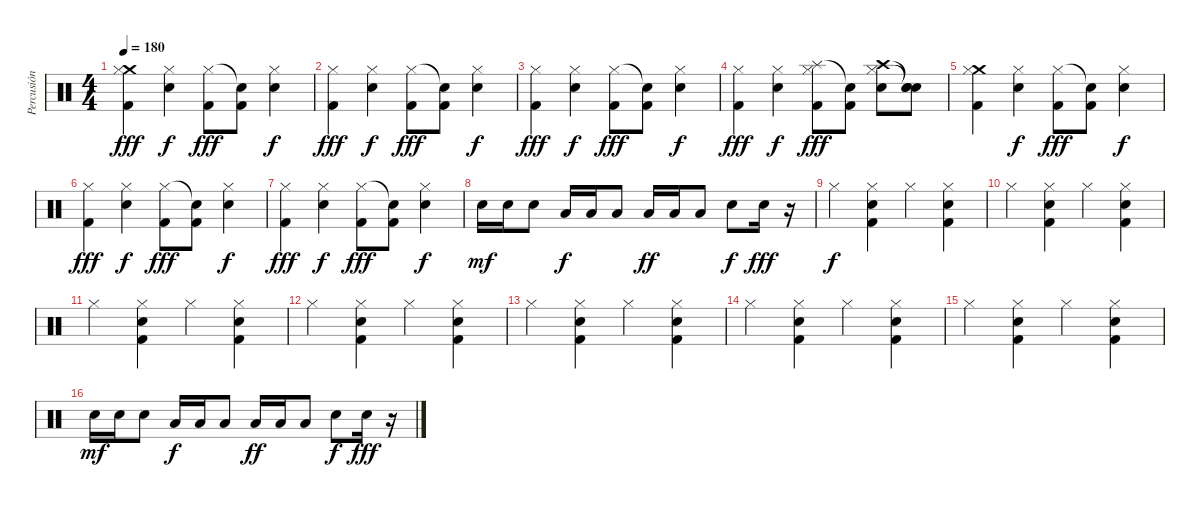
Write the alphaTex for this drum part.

\track ("Percusión" "Percusión") {instrument percussion}
\staff {score}
\articulation defaults
\ts (4 4)
\tempo 180
\clef neutral
\ks c
("Crash medium (hit)" "Hi-Hat (closed)" "Kick (hit) 2").4{dy fff} ("Snare (hit) 2" "Hi-Hat (closed)").4{dy f} ("Hi-Hat (closed)" "Kick (hit) 2").8{dy fff} ("Snare (hit)"{t} "Kick (hit) 2").8 ("Snare (hit) 2" "Hi-Hat (closed)").4{dy f} |
("Hi-Hat (closed)" "Kick (hit) 2").4{dy fff} ("Snare (hit) 2" "Hi-Hat (closed)").4{dy f} ("Hi-Hat (closed)" "Kick (hit) 2").8{dy fff} ("Snare (hit)"{t} "Kick (hit) 2").8 ("Snare (hit) 2" "Hi-Hat (closed)").4{dy f} |
("Hi-Hat (closed)" "Kick (hit) 2").4{dy fff} ("Snare (hit) 2" "Hi-Hat (closed)").4{dy f} ("Hi-Hat (closed)" "Kick (hit) 2").8{dy fff} ("Snare (hit)"{t} "Kick (hit) 2").8 ("Snare (hit) 2" "Hi-Hat (closed)").4{dy f} |
("Hi-Hat (closed)" "Kick (hit) 2").4{dy fff} ("Snare (hit) 2" "Hi-Hat (closed)").4{dy f} ("Splash (hit)" "Hi-Hat (closed)" "Kick (hit) 2").8{dy fff} ("Snare (hit)"{t} "Kick (hit) 2").8 ("Crash high (hit)" "Snare (hit) 2" "Hi-Hat (closed)").8 ("Snare (hit)"{t} "Snare (hit) 2" "Snare (hit)"{t}).8 |
("Crash medium (hit)" "Hi-Hat (closed)" "Kick (hit) 2").4 ("Snare (hit) 2" "Hi-Hat (closed)").4{dy f} ("Hi-Hat (closed)" "Kick (hit) 2").8{dy fff} ("Snare (hit)"{t} "Kick (hit) 2").8 ("Snare (hit) 2" "Hi-Hat (closed)").4{dy f} |
("Hi-Hat (closed)" "Kick (hit) 2").4{dy fff} ("Snare (hit) 2" "Hi-Hat (closed)").4{dy f} ("Hi-Hat (closed)" "Kick (hit) 2").8{dy fff} ("Snare (hit)"{t} "Kick (hit) 2").8 ("Snare (hit) 2" "Hi-Hat (closed)").4{dy f} |
("Hi-Hat (closed)" "Kick (hit) 2").4{dy fff} ("Snare (hit) 2" "Hi-Hat (closed)").4{dy f} ("Hi-Hat (closed)" "Kick (hit) 2").8{dy fff} ("Snare (hit)"{t} "Kick (hit) 2").8 ("Snare (hit) 2" "Hi-Hat (closed)").4{dy f} |
"Snare (hit) 2".16{dy mf} "Snare (hit) 2".16 "Snare (hit) 2".8 "Low Tom (hit)".16{dy f} "Low Tom (hit)".16 "Low Tom (hit)".8 "Low Floor Tom (hit)".16{dy ff} "Low Floor Tom (hit)".16 "Low Floor Tom (hit)".8 "Electric Snare (hit)".8{dy f} "Electric Snare (hit)".16{dy fff} r.16 |
"Hi-Hat (closed)".4{dy f} ("Snare (hit) 2" "Hi-Hat (closed)" "Kick (hit) 2").4 "Hi-Hat (closed)".4 ("Snare (hit) 2" "Hi-Hat (closed)" "Kick (hit) 2").4 |
"Hi-Hat (closed)".4 ("Snare (hit) 2" "Hi-Hat (closed)" "Kick (hit) 2").4 "Hi-Hat (closed)".4 ("Snare (hit) 2" "Hi-Hat (closed)" "Kick (hit) 2").4 |
"Hi-Hat (closed)".4 ("Snare (hit) 2" "Hi-Hat (closed)" "Kick (hit) 2").4 "Hi-Hat (closed)".4 ("Snare (hit) 2" "Hi-Hat (closed)" "Kick (hit) 2").4 |
"Hi-Hat (closed)".4 ("Snare (hit) 2" "Hi-Hat (closed)" "Kick (hit) 2").4 "Hi-Hat (closed)".4 ("Snare (hit) 2" "Hi-Hat (closed)" "Kick (hit) 2").4 |
"Hi-Hat (closed)".4 ("Snare (hit) 2" "Hi-Hat (closed)" "Kick (hit) 2").4 "Hi-Hat (closed)".4 ("Snare (hit) 2" "Hi-Hat (closed)" "Kick (hit) 2").4 |
"Hi-Hat (closed)".4 ("Snare (hit) 2" "Hi-Hat (closed)" "Kick (hit) 2").4 "Hi-Hat (closed)".4 ("Snare (hit) 2" "Hi-Hat (closed)" "Kick (hit) 2").4 |
"Hi-Hat (closed)".4 ("Snare (hit) 2" "Hi-Hat (closed)" "Kick (hit) 2").4 "Hi-Hat (closed)".4 ("Snare (hit) 2" "Hi-Hat (closed)" "Kick (hit) 2").4 |
"Snare (hit) 2".16{dy mf} "Snare (hit) 2".16 "Snare (hit) 2".8 "Low Tom (hit)".16{dy f} "Low Tom (hit)".16 "Low Tom (hit)".8 "Low Floor Tom (hit)".16{dy ff} "Low Floor Tom (hit)".16 "Low Floor Tom (hit)".8 "Electric Snare (hit)".8{dy f} "Electric Snare (hit)".16{dy fff} r.16
